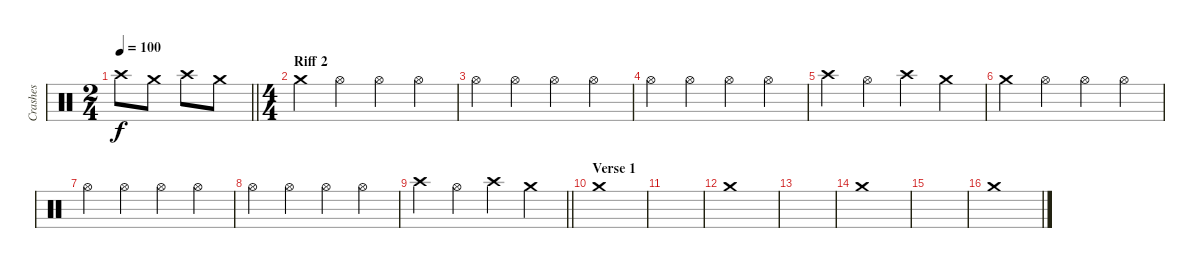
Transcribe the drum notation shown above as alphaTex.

\track ("Crashes" "Crashes") {instrument percussion}
\staff {score}
\articulation defaults
\ts (2 4)
\tempo 100
\clef neutral
\barLineRight lightlight
\ks c "Crash high (hit)".8{dy f} "Crash medium (hit)".8 "Crash high (hit)".8 "Crash medium (hit)".8
|
\ts (4 4)
\section ("" "Riff 2")
"Crash medium (hit)".4 "Hi-Hat (open)".4 "Hi-Hat (open)".4 "Hi-Hat (open)".4 |
"Hi-Hat (open)".4 "Hi-Hat (open)".4 "Hi-Hat (open)".4 "Hi-Hat (open)".4 |
"Hi-Hat (open)".4 "Hi-Hat (open)".4 "Hi-Hat (open)".4 "Hi-Hat (open)".4 |
"Crash high (hit)".4 "Hi-Hat (open)".4 "Crash high (hit)".4 "Crash medium (hit)".4 |
"Crash medium (hit)".4 "Hi-Hat (open)".4 "Hi-Hat (open)".4 "Hi-Hat (open)".4 |
"Hi-Hat (open)".4 "Hi-Hat (open)".4 "Hi-Hat (open)".4 "Hi-Hat (open)".4 |
"Hi-Hat (open)".4 "Hi-Hat (open)".4 "Hi-Hat (open)".4 "Hi-Hat (open)".4 |
\barLineRight lightlight "Crash high (hit)".4 "Hi-Hat (open)".4 "Crash high (hit)".4 "Crash medium (hit)".4
|
\section ("" "Verse 1")
"Crash medium (hit)".1 |
|
"Crash medium (hit)".1 |
|
"Crash medium (hit)".1 |
|
"Crash medium (hit)".1
